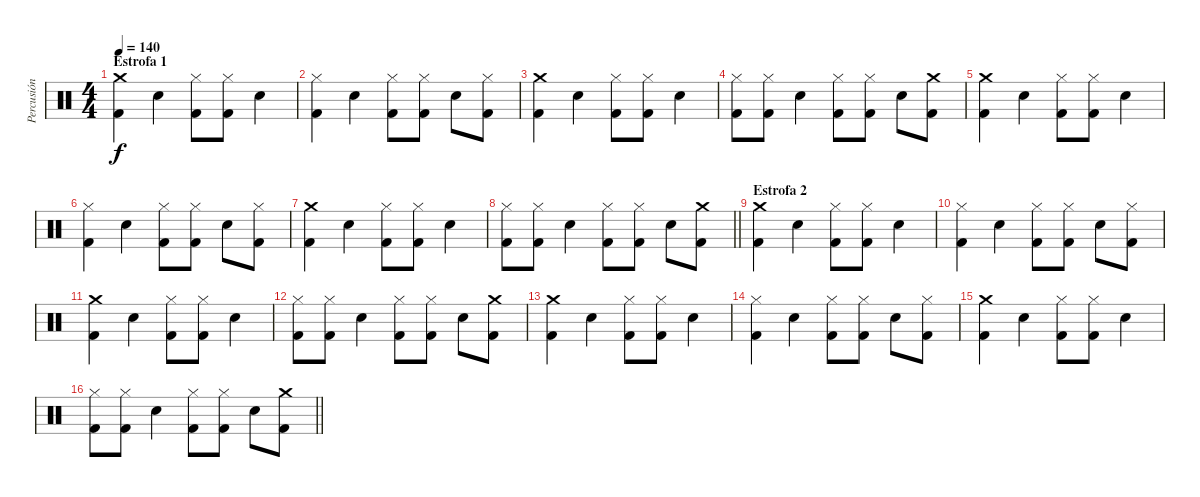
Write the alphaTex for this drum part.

\track ("Percusión" "Percusión") {instrument percussion}
\staff {score}
\articulation defaults
\ts (4 4)
\section ("" "Estrofa 1")
\tempo 140
\clef neutral
\ks c
("Crash medium (hit)" "Kick (hit) 2").4{dy f} "Snare (hit) 2".4 ("Hi-Hat (closed)" "Kick (hit) 2").8 ("Hi-Hat (closed)" "Kick (hit) 2").8 "Snare (hit) 2".4 |
("Hi-Hat (closed)" "Kick (hit) 2").4 "Snare (hit) 2".4 ("Hi-Hat (closed)" "Kick (hit) 2").8 ("Hi-Hat (closed)" "Kick (hit) 2").8 "Snare (hit) 2".8 ("Hi-Hat (closed)" "Kick (hit) 2").8 |
("Crash medium (hit)" "Kick (hit) 2").4 "Snare (hit) 2".4 ("Hi-Hat (closed)" "Kick (hit) 2").8 ("Hi-Hat (closed)" "Kick (hit) 2").8 "Snare (hit) 2".4 |
("Hi-Hat (closed)" "Kick (hit) 2").8 ("Hi-Hat (closed)" "Kick (hit) 2").8 "Snare (hit) 2".4 ("Hi-Hat (closed)" "Kick (hit) 2").8 ("Hi-Hat (closed)" "Kick (hit) 2").8 "Snare (hit) 2".8 ("Crash medium (hit)" "Kick (hit) 2").8 |
("Crash medium (hit)" "Kick (hit) 2").4 "Snare (hit) 2".4 ("Hi-Hat (closed)" "Kick (hit) 2").8 ("Hi-Hat (closed)" "Kick (hit) 2").8 "Snare (hit) 2".4 |
("Hi-Hat (closed)" "Kick (hit) 2").4 "Snare (hit) 2".4 ("Hi-Hat (closed)" "Kick (hit) 2").8 ("Hi-Hat (closed)" "Kick (hit) 2").8 "Snare (hit) 2".8 ("Hi-Hat (closed)" "Kick (hit) 2").8 |
("Crash medium (hit)" "Kick (hit) 2").4 "Snare (hit) 2".4 ("Hi-Hat (closed)" "Kick (hit) 2").8 ("Hi-Hat (closed)" "Kick (hit) 2").8 "Snare (hit) 2".4 |
\barLineRight lightlight
("Hi-Hat (closed)" "Kick (hit) 2").8 ("Hi-Hat (closed)" "Kick (hit) 2").8 "Snare (hit) 2".4 ("Hi-Hat (closed)" "Kick (hit) 2").8 ("Hi-Hat (closed)" "Kick (hit) 2").8 "Snare (hit) 2".8 ("Crash medium (hit)" "Kick (hit) 2").8 |
\section ("" "Estrofa 2")
("Crash medium (hit)" "Kick (hit) 2").4 "Snare (hit) 2".4 ("Hi-Hat (closed)" "Kick (hit) 2").8 ("Hi-Hat (closed)" "Kick (hit) 2").8 "Snare (hit) 2".4 |
("Hi-Hat (closed)" "Kick (hit) 2").4 "Snare (hit) 2".4 ("Hi-Hat (closed)" "Kick (hit) 2").8 ("Hi-Hat (closed)" "Kick (hit) 2").8 "Snare (hit) 2".8 ("Hi-Hat (closed)" "Kick (hit) 2").8 |
("Crash medium (hit)" "Kick (hit) 2").4 "Snare (hit) 2".4 ("Hi-Hat (closed)" "Kick (hit) 2").8 ("Hi-Hat (closed)" "Kick (hit) 2").8 "Snare (hit) 2".4 |
("Hi-Hat (closed)" "Kick (hit) 2").8 ("Hi-Hat (closed)" "Kick (hit) 2").8 "Snare (hit) 2".4 ("Hi-Hat (closed)" "Kick (hit) 2").8 ("Hi-Hat (closed)" "Kick (hit) 2").8 "Snare (hit) 2".8 ("Crash medium (hit)" "Kick (hit) 2").8 |
("Crash medium (hit)" "Kick (hit) 2").4 "Snare (hit) 2".4 ("Hi-Hat (closed)" "Kick (hit) 2").8 ("Hi-Hat (closed)" "Kick (hit) 2").8 "Snare (hit) 2".4 |
("Hi-Hat (closed)" "Kick (hit) 2").4 "Snare (hit) 2".4 ("Hi-Hat (closed)" "Kick (hit) 2").8 ("Hi-Hat (closed)" "Kick (hit) 2").8 "Snare (hit) 2".8 ("Hi-Hat (closed)" "Kick (hit) 2").8 |
("Crash medium (hit)" "Kick (hit) 2").4 "Snare (hit) 2".4 ("Hi-Hat (closed)" "Kick (hit) 2").8 ("Hi-Hat (closed)" "Kick (hit) 2").8 "Snare (hit) 2".4 |
\barLineRight lightlight
("Hi-Hat (closed)" "Kick (hit) 2").8 ("Hi-Hat (closed)" "Kick (hit) 2").8 "Snare (hit) 2".4 ("Hi-Hat (closed)" "Kick (hit) 2").8 ("Hi-Hat (closed)" "Kick (hit) 2").8 "Snare (hit) 2".8 ("Crash medium (hit)" "Kick (hit) 2").8
